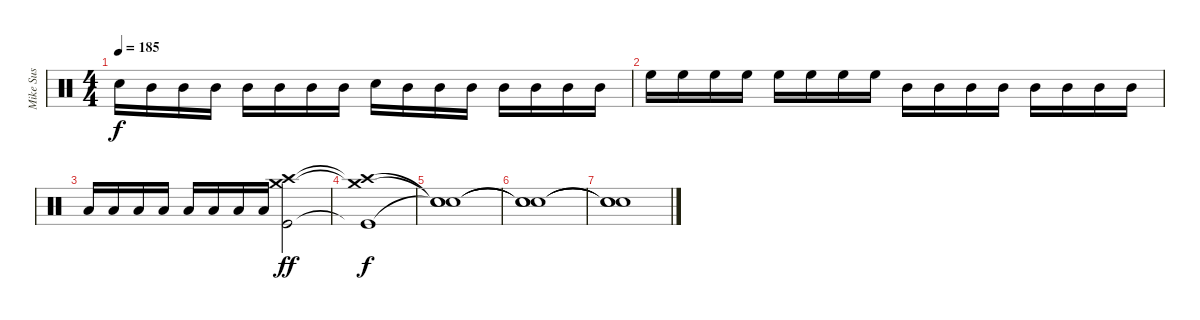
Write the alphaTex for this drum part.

\track ("Mike Sus" "Mike Sus") {instrument percussion}
\staff {score}
\articulation defaults
\ts (4 4)
\tempo 185
\clef neutral
\ks c "Snare (hit) 2".16{dy f} "Mid Tom (hit)".16 "Mid Tom (hit)".16 "Mid Tom (hit)".16 "Mid Tom (hit)".16 "Mid Tom (hit)".16 "Mid Tom (hit)".16 "Mid Tom (hit)".16 "Snare (hit) 2".16 "Mid Tom (hit)".16 "Mid Tom (hit)".16 "Mid Tom (hit)".16 "Mid Tom (hit)".16 "Mid Tom (hit)".16 "Mid Tom (hit)".16 "Mid Tom (hit)".16
|
"High Floor Tom (hit)".16 "High Floor Tom (hit)".16 "High Floor Tom (hit)".16 "High Floor Tom (hit)".16 "High Floor Tom (hit)".16 "High Floor Tom (hit)".16 "High Floor Tom (hit)".16 "High Floor Tom (hit)".16 "Mid Tom (hit)".16 "Mid Tom (hit)".16 "Mid Tom (hit)".16 "Mid Tom (hit)".16 "Mid Tom (hit)".16 "Mid Tom (hit)".16 "Mid Tom (hit)".16 "Mid Tom (hit)".16 |
"Low Tom (hit)".16 "Low Tom (hit)".16 "Low Tom (hit)".16 "Low Tom (hit)".16 "Low Tom (hit)".16 "Low Tom (hit)".16 "Low Tom (hit)".16 "Low Tom (hit)".16 ("Kick (hit)" "Crash high (hit)" "Crash medium (hit)").2{dy ff} |
("Kick (hit)"{t} "Crash high (hit)"{t} "Crash medium (hit)"{t}).1{dy f} |
("Snare (hit)"{t} "Snare (hit)"{t} "Snare (hit)"{t}).1 |
("Snare (hit)"{t} "Snare (hit)"{t} "Snare (hit)"{t}).1 |
("Snare (hit)"{t} "Snare (hit)"{t} "Snare (hit)"{t}).1
